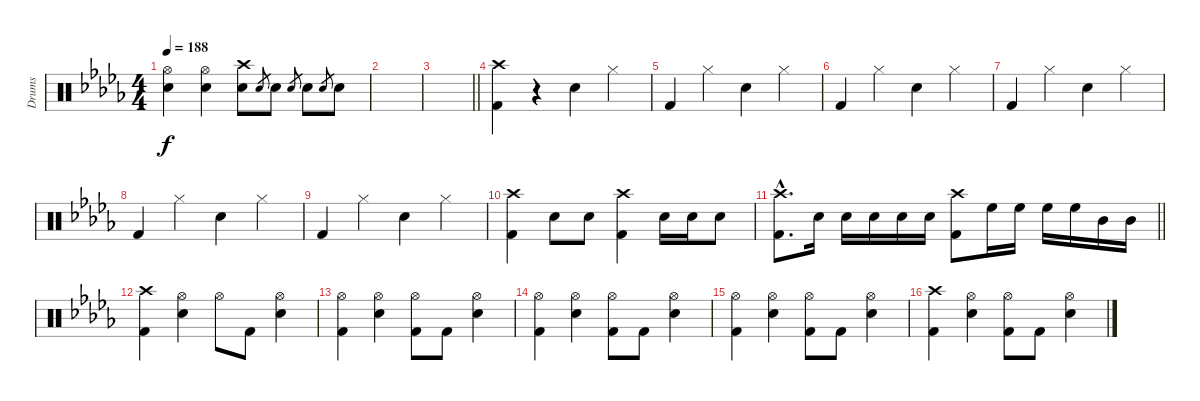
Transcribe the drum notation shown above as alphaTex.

\track ("Drums" "Drums") {instrument percussion}
\staff {score}
\articulation defaults
\ts (4 4)
\tempo 188
\clef neutral
\ks bbminor
("Hi-Hat (open)" "Electric Snare (hit)").4{dy f} ("Hi-Hat (open)" "Electric Snare (hit)").4 ("Crash high (hit)" "Electric Snare (hit)").8 "Electric Snare (hit)".8{gr} "Electric Snare (hit)".8 "Electric Snare (hit)".8{gr} "Electric Snare (hit)".8 "Electric Snare (hit)".8{gr} "Electric Snare (hit)".8 |
|
\barLineRight lightlight
|
("Crash high (hit)" "Kick (hit) 2").4 r.4 "Electric Snare (hit)".4 "Hi-Hat (closed)".4 |
"Kick (hit) 2".4 "Hi-Hat (closed)".4 "Electric Snare (hit)".4 "Hi-Hat (closed)".4 |
"Kick (hit) 2".4 "Hi-Hat (closed)".4 "Electric Snare (hit)".4 "Hi-Hat (closed)".4 |
"Kick (hit) 2".4 "Hi-Hat (closed)".4 "Electric Snare (hit)".4 "Hi-Hat (closed)".4 |
"Kick (hit) 2".4 "Hi-Hat (closed)".4 "Electric Snare (hit)".4 "Hi-Hat (closed)".4 |
"Kick (hit) 2".4 "Hi-Hat (closed)".4 "Electric Snare (hit)".4 "Hi-Hat (closed)".4 |
("Crash high (hit)" "Kick (hit) 2").4 "Electric Snare (hit)".8 "Electric Snare (hit)".8 ("Crash high (hit)" "Kick (hit) 2").4 "Electric Snare (hit)".16 "Electric Snare (hit)".16 "Electric Snare (hit)".8 |
\barLineRight lightlight
("Crash high (hit)"{hac} "Kick (hit) 2"{hac}).8{d} "Electric Snare (hit)".16 "Electric Snare (hit)".16 "Electric Snare (hit)".16 "Electric Snare (hit)".16 "Electric Snare (hit)".16 ("Crash high (hit)" "Kick (hit) 2").8 "High Floor Tom (hit)".16 "High Floor Tom (hit)".16 "High Floor Tom (hit)".16 "High Floor Tom (hit)".16 "Mid Tom (hit)".16 "Mid Tom (hit)".16 |
("Crash high (hit)" "Kick (hit) 2").4 ("Hi-Hat (open)" "Electric Snare (hit)").4 "Hi-Hat (open)".8 "Kick (hit) 2".8 ("Hi-Hat (open)" "Electric Snare (hit)").4 |
("Hi-Hat (open)" "Kick (hit) 2").4 ("Hi-Hat (open)" "Electric Snare (hit)").4 ("Hi-Hat (open)" "Kick (hit) 2").8 "Kick (hit) 2".8 ("Hi-Hat (open)" "Electric Snare (hit)").4 |
("Hi-Hat (open)" "Kick (hit) 2").4 ("Hi-Hat (open)" "Electric Snare (hit)").4 ("Hi-Hat (open)" "Kick (hit) 2").8 "Kick (hit) 2".8 ("Hi-Hat (open)" "Electric Snare (hit)").4 |
("Hi-Hat (open)" "Kick (hit) 2").4 ("Hi-Hat (open)" "Electric Snare (hit)").4 ("Hi-Hat (open)" "Kick (hit) 2").8 "Kick (hit) 2".8 ("Hi-Hat (open)" "Electric Snare (hit)").4 |
("Crash high (hit)" "Kick (hit) 2").4 ("Hi-Hat (open)" "Electric Snare (hit)").4 ("Hi-Hat (open)" "Kick (hit) 2").8 "Kick (hit) 2".8 ("Hi-Hat (open)" "Electric Snare (hit)").4
